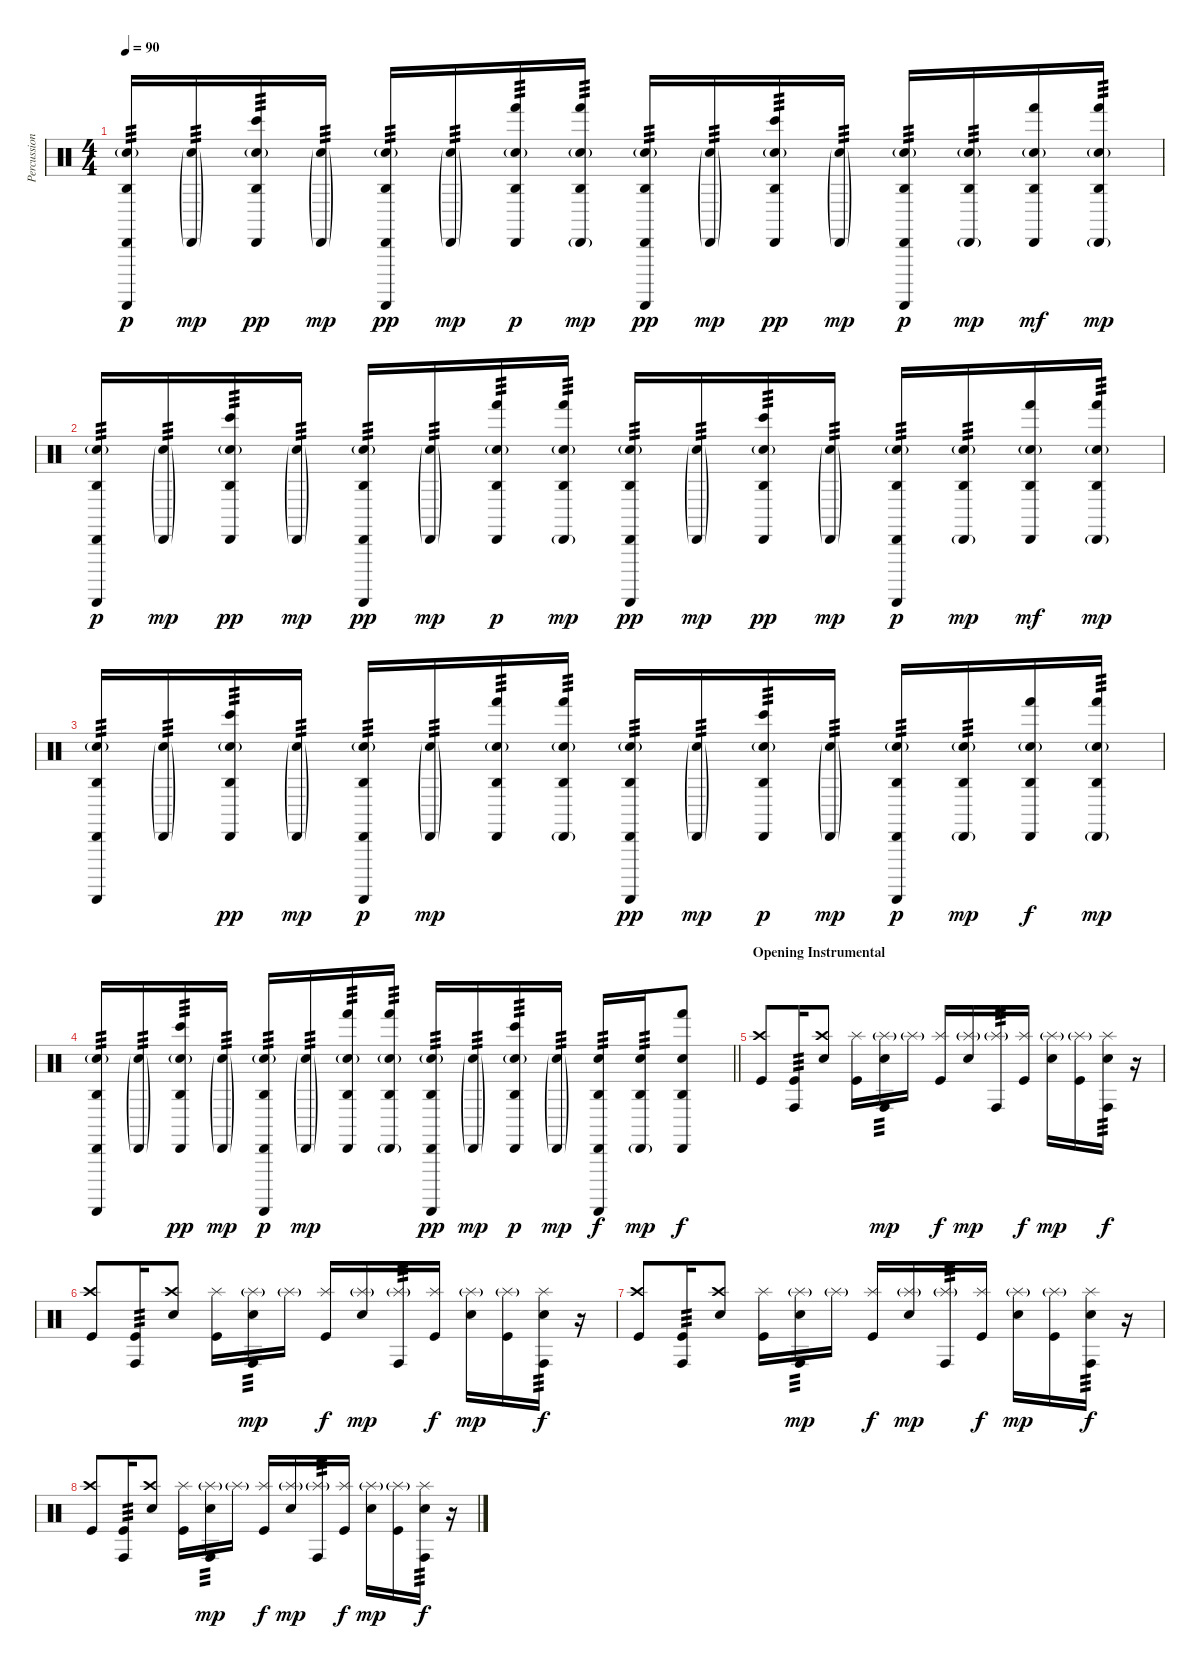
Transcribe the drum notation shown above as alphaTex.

\track ("Percussion" "Percussion") {instrument percussion}
\staff {score}
\articulation defaults
\ts (4 4)
\tempo 90
\clef neutral
\ks c
("Snare (hit) 2"{g} "Cabasa (hit)" "Agogo high (hit)" "Guiro (scrap-return)").16{tp 3 dy p} ("Snare (hit) 2"{g} "Cabasa (hit)"{g}).16{tp 3 dy mp} ("Snare (hit) 2"{g} "Cabasa (hit)" "Agogo high (hit)" "Bongo High (hit)").16{tp 3 dy pp} ("Snare (hit) 2"{g} "Cabasa (hit)"{g}).16{tp 3 dy mp} ("Snare (hit) 2"{g} "Cabasa (hit)" "Agogo high (hit)" "Guiro (scrap-return)").16{tp 3 dy pp} ("Snare (hit) 2"{g} "Cabasa (hit)"{g}).16{tp 3 dy mp} ("Snare (hit) 2"{g} "Cabasa (hit)" "Agogo high (hit)" "Hand (hit)").16{tp 3 dy p} ("Snare (hit) 2"{g} "Cabasa (hit)"{g} "Agogo high (hit)" "Hand (hit)").16{tp 3 dy mp} ("Snare (hit) 2"{g} "Cabasa (hit)" "Agogo high (hit)" "Guiro (scrap-return)").16{tp 3 dy pp} ("Snare (hit) 2"{g} "Cabasa (hit)"{g}).16{tp 3 dy mp} ("Snare (hit) 2"{g} "Cabasa (hit)" "Agogo high (hit)" "Bongo High (hit)").16{tp 3 dy pp} ("Snare (hit) 2"{g} "Cabasa (hit)"{g}).16{tp 3 dy mp} ("Snare (hit) 2"{g} "Cabasa (hit)" "Agogo high (hit)" "Guiro (scrap-return)").16{tp 3 dy p} ("Snare (hit) 2"{g} "Cabasa (hit)"{g} "Agogo high (hit)").16{tp 3 dy mp} ("Snare (hit) 2"{g} "Cabasa (hit)" "Agogo high (hit)" "Hand (hit)").16{dy mf} ("Snare (hit) 2"{g} "Cabasa (hit)"{g} "Agogo high (hit)" "Hand (hit)").16{tp 3 dy mp} |
("Snare (hit) 2"{g} "Cabasa (hit)" "Agogo high (hit)" "Guiro (scrap-return)").16{tp 3 dy p} ("Snare (hit) 2"{g} "Cabasa (hit)"{g}).16{tp 3 dy mp} ("Snare (hit) 2"{g} "Cabasa (hit)" "Agogo high (hit)" "Bongo High (hit)").16{tp 3 dy pp} ("Snare (hit) 2"{g} "Cabasa (hit)"{g}).16{tp 3 dy mp} ("Snare (hit) 2"{g} "Cabasa (hit)" "Agogo high (hit)" "Guiro (scrap-return)").16{tp 3 dy pp} ("Snare (hit) 2"{g} "Cabasa (hit)"{g}).16{tp 3 dy mp} ("Snare (hit) 2"{g} "Cabasa (hit)" "Agogo high (hit)" "Hand (hit)").16{tp 3 dy p} ("Snare (hit) 2"{g} "Cabasa (hit)"{g} "Agogo high (hit)" "Hand (hit)").16{tp 3 dy mp} ("Snare (hit) 2"{g} "Cabasa (hit)" "Agogo high (hit)" "Guiro (scrap-return)").16{tp 3 dy pp} ("Snare (hit) 2"{g} "Cabasa (hit)"{g}).16{tp 3 dy mp} ("Snare (hit) 2"{g} "Cabasa (hit)" "Agogo high (hit)" "Bongo High (hit)").16{tp 3 dy pp} ("Snare (hit) 2"{g} "Cabasa (hit)"{g}).16{tp 3 dy mp} ("Snare (hit) 2"{g} "Cabasa (hit)" "Agogo high (hit)" "Guiro (scrap-return)").16{tp 3 dy p} ("Snare (hit) 2"{g} "Cabasa (hit)"{g} "Agogo high (hit)").16{tp 3 dy mp} ("Snare (hit) 2"{g} "Cabasa (hit)" "Agogo high (hit)" "Hand (hit)").16{dy mf} ("Snare (hit) 2"{g} "Cabasa (hit)"{g} "Agogo high (hit)" "Hand (hit)").16{tp 3 dy mp} |
("Snare (hit) 2"{g} "Cabasa (hit)" "Agogo high (hit)" "Guiro (scrap-return)").16{tp 3} ("Snare (hit) 2"{g} "Cabasa (hit)"{g}).16{tp 3} ("Snare (hit) 2"{g} "Cabasa (hit)" "Agogo high (hit)" "Bongo High (hit)").16{tp 3 dy pp} ("Snare (hit) 2"{g} "Cabasa (hit)"{g}).16{tp 3 dy mp} ("Snare (hit) 2"{g} "Cabasa (hit)" "Agogo high (hit)" "Guiro (scrap-return)").16{tp 3 dy p} ("Snare (hit) 2"{g} "Cabasa (hit)"{g}).16{tp 3 dy mp} ("Snare (hit) 2"{g} "Cabasa (hit)" "Agogo high (hit)" "Hand (hit)").16{tp 3} ("Snare (hit) 2"{g} "Cabasa (hit)"{g} "Agogo high (hit)" "Hand (hit)").16{tp 3} ("Snare (hit) 2"{g} "Cabasa (hit)" "Agogo high (hit)" "Guiro (scrap-return)").16{tp 3 dy pp} ("Snare (hit) 2"{g} "Cabasa (hit)"{g}).16{tp 3 dy mp} ("Snare (hit) 2"{g} "Cabasa (hit)" "Agogo high (hit)" "Bongo High (hit)").16{tp 3 dy p} ("Snare (hit) 2"{g} "Cabasa (hit)"{g}).16{tp 3 dy mp} ("Snare (hit) 2"{g} "Cabasa (hit)" "Agogo high (hit)" "Guiro (scrap-return)").16{tp 3 dy p} ("Snare (hit) 2"{g} "Cabasa (hit)"{g} "Agogo high (hit)").16{tp 3 dy mp} ("Snare (hit) 2"{g} "Cabasa (hit)" "Agogo high (hit)" "Hand (hit)").16{dy f} ("Snare (hit) 2"{g} "Cabasa (hit)"{g} "Agogo high (hit)" "Hand (hit)").16{tp 3 dy mp} |
\barLineRight lightlight
("Snare (hit) 2"{g} "Cabasa (hit)" "Agogo high (hit)" "Guiro (scrap-return)").16{tp 3} ("Snare (hit) 2"{g} "Cabasa (hit)"{g}).16{tp 3} ("Snare (hit) 2"{g} "Cabasa (hit)" "Agogo high (hit)" "Bongo High (hit)").16{tp 3 dy pp} ("Snare (hit) 2"{g} "Cabasa (hit)"{g}).16{tp 3 dy mp} ("Snare (hit) 2"{g} "Cabasa (hit)" "Agogo high (hit)" "Guiro (scrap-return)").16{tp 3 dy p} ("Snare (hit) 2"{g} "Cabasa (hit)"{g}).16{tp 3 dy mp} ("Snare (hit) 2"{g} "Cabasa (hit)" "Agogo high (hit)" "Hand (hit)").16{tp 3} ("Snare (hit) 2"{g} "Cabasa (hit)"{g} "Agogo high (hit)" "Hand (hit)").16{tp 3} ("Snare (hit) 2"{g} "Cabasa (hit)" "Agogo high (hit)" "Guiro (scrap-return)").16{tp 3 dy pp} ("Snare (hit) 2"{g} "Cabasa (hit)"{g}).16{tp 3 dy mp} ("Snare (hit) 2"{g} "Cabasa (hit)" "Agogo high (hit)" "Bongo High (hit)").16{tp 3 dy p} ("Snare (hit) 2"{g} "Cabasa (hit)"{g}).16{tp 3 dy mp} ("Snare (hit) 2" "Cabasa (hit)" "Agogo high (hit)" "Guiro (scrap-return)").16{tp 3 dy f} ("Snare (hit) 2" "Cabasa (hit)"{g} "Agogo high (hit)").16{tp 3 dy mp} ("Snare (hit) 2" "Cabasa (hit)" "Agogo high (hit)" "Hand (hit)").8{dy f} |
\section ("" "Opening Instrumental")
("Crash high (hit)" "Kick (hit)").8 ("Conga high (hit)" "Kick (hit)").16{tp 3} ("Crash high (hit)" "Snare (hit) 2").8 ("Splash (hit)" "Kick (hit)").16 ("Splash (hit)"{g} "Snare (hit) 2" "Conga high (hit)").16{tp 3 dy mp} "Splash (hit)"{g}.16 ("Splash (hit)" "Kick (hit)").16{dy f} ("Splash (hit)"{g} "Snare (hit) 2").16{dy mp} ("Splash (hit)"{g} "Conga high (hit)").16{tp 3} ("Splash (hit)" "Kick (hit)").16{dy f} ("Splash (hit)"{g} "Snare (hit) 2").16{dy mp} ("Splash (hit)"{g} "Kick (hit)").16 ("Splash (hit)" "Snare (hit) 2" "Conga high (hit)").16{tp 3 dy f} r.16 |
("Crash high (hit)" "Kick (hit)").8 ("Conga high (hit)" "Kick (hit)").16{tp 3} ("Crash high (hit)" "Snare (hit) 2").8 ("Splash (hit)" "Kick (hit)").16 ("Splash (hit)"{g} "Snare (hit) 2" "Conga high (hit)").16{tp 3 dy mp} "Splash (hit)"{g}.16 ("Splash (hit)" "Kick (hit)").16{dy f} ("Splash (hit)"{g} "Snare (hit) 2").16{dy mp} ("Splash (hit)"{g} "Conga high (hit)").16{tp 3} ("Splash (hit)" "Kick (hit)").16{dy f} ("Splash (hit)"{g} "Snare (hit) 2").16{dy mp} ("Splash (hit)"{g} "Kick (hit)").16 ("Splash (hit)" "Snare (hit) 2" "Conga high (hit)").16{tp 3 dy f} r.16 |
("Crash high (hit)" "Kick (hit)").8 ("Conga high (hit)" "Kick (hit)").16{tp 3} ("Crash high (hit)" "Snare (hit) 2").8 ("Splash (hit)" "Kick (hit)").16 ("Splash (hit)"{g} "Snare (hit) 2" "Conga high (hit)").16{tp 3 dy mp} "Splash (hit)"{g}.16 ("Splash (hit)" "Kick (hit)").16{dy f} ("Splash (hit)"{g} "Snare (hit) 2").16{dy mp} ("Splash (hit)"{g} "Conga high (hit)").16{tp 3} ("Splash (hit)" "Kick (hit)").16{dy f} ("Splash (hit)"{g} "Snare (hit) 2").16{dy mp} ("Splash (hit)"{g} "Kick (hit)").16 ("Splash (hit)" "Snare (hit) 2" "Conga high (hit)").16{tp 3 dy f} r.16 |
("Crash high (hit)" "Kick (hit)").8 ("Conga high (hit)" "Kick (hit)").16{tp 3} ("Crash high (hit)" "Snare (hit) 2").8 ("Splash (hit)" "Kick (hit)").16 ("Splash (hit)"{g} "Snare (hit) 2" "Conga high (hit)").16{tp 3 dy mp} "Splash (hit)"{g}.16 ("Splash (hit)" "Kick (hit)").16{dy f} ("Splash (hit)"{g} "Snare (hit) 2").16{dy mp} ("Splash (hit)"{g} "Conga high (hit)").16{tp 3} ("Splash (hit)" "Kick (hit)").16{dy f} ("Splash (hit)"{g} "Snare (hit) 2").16{dy mp} ("Splash (hit)"{g} "Kick (hit)").16 ("Splash (hit)" "Snare (hit) 2" "Conga high (hit)").16{tp 3 dy f} r.16
